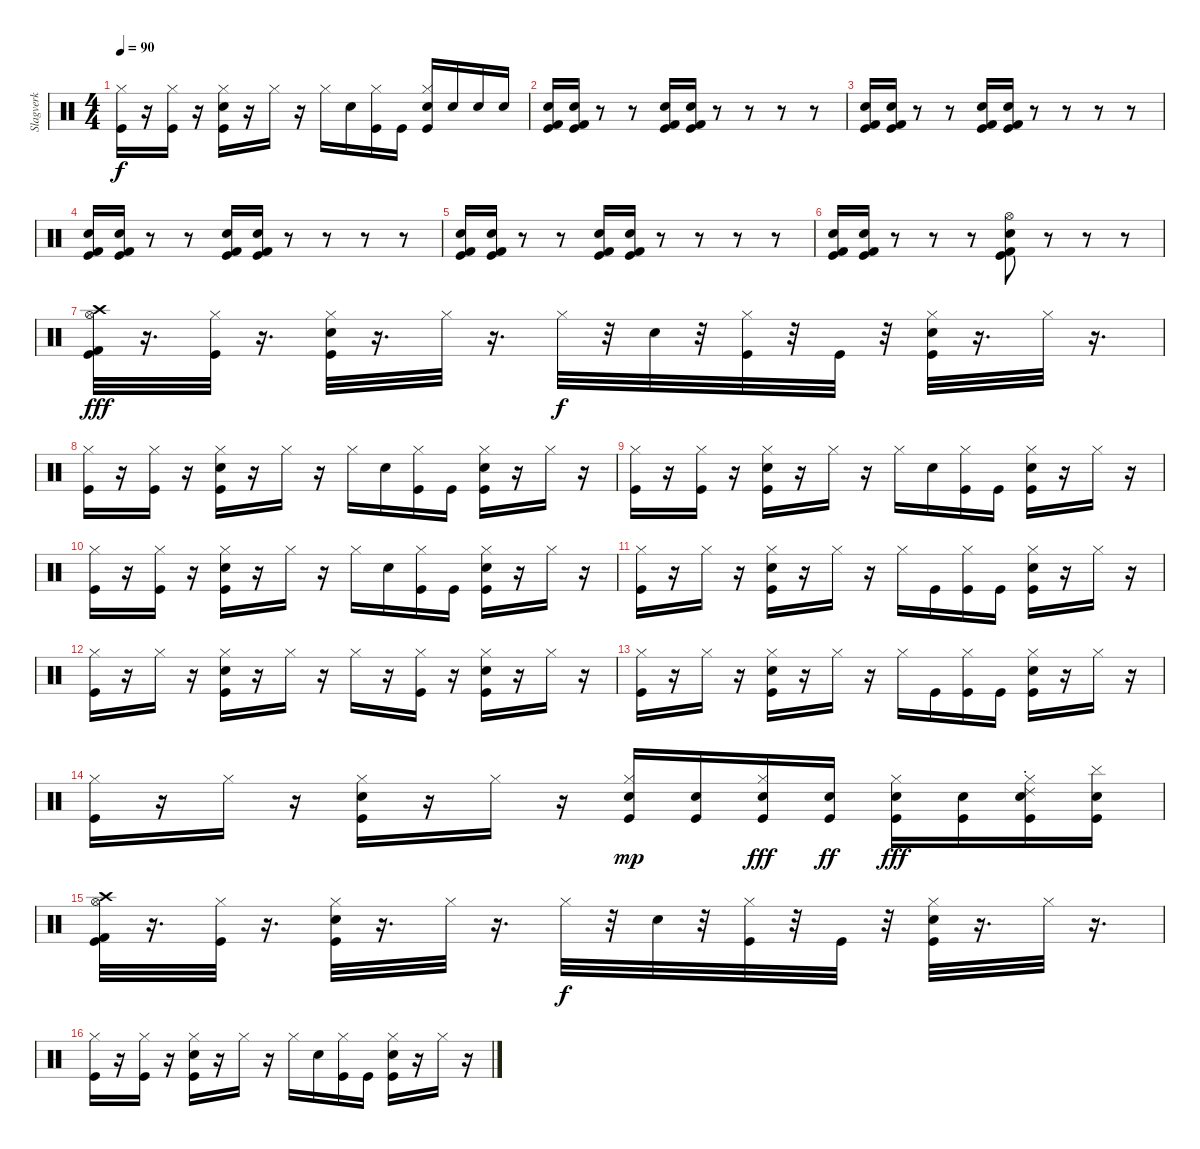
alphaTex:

\track ("Slagverk" "Slagverk") {instrument percussion}
\staff {score}
\articulation defaults
\ts (4 4)
\tempo 90
\clef neutral
\ks c
("Kick (hit)" "Hi-Hat (closed)").16{dy f} r.16 ("Kick (hit)" "Hi-Hat (closed)").16 r.16 ("Kick (hit)" "Hi-Hat (closed)" "Snare (hit) 2").16 r.16 "Hi-Hat (closed)".16 r.16 "Hi-Hat (closed)".16 "Snare (hit) 2".16 ("Kick (hit)" "Hi-Hat (closed)").16 "Kick (hit)".16 ("Kick (hit)" "Hi-Hat (closed)" "Snare (hit) 2").16 "Snare (hit) 2".16 "Snare (hit) 2".16 "Snare (hit) 2".16 |
("Snare (hit) 2" "Kick (hit)" "Kick (hit) 2").16 ("Snare (hit) 2" "Kick (hit)" "Kick (hit) 2").16 r.8 r.8 ("Snare (hit) 2" "Kick (hit)" "Kick (hit) 2").16 ("Snare (hit) 2" "Kick (hit)" "Kick (hit) 2").16 r.8 r.8 r.8 r.8 |
("Snare (hit) 2" "Kick (hit)" "Kick (hit) 2").16 ("Snare (hit) 2" "Kick (hit)" "Kick (hit) 2").16 r.8 r.8 ("Snare (hit) 2" "Kick (hit)" "Kick (hit) 2").16 ("Snare (hit) 2" "Kick (hit)" "Kick (hit) 2").16 r.8 r.8 r.8 r.8 |
("Snare (hit) 2" "Kick (hit)" "Kick (hit) 2").16 ("Snare (hit) 2" "Kick (hit)" "Kick (hit) 2").16 r.8 r.8 ("Snare (hit) 2" "Kick (hit)" "Kick (hit) 2").16 ("Snare (hit) 2" "Kick (hit)" "Kick (hit) 2").16 r.8 r.8 r.8 r.8 |
("Snare (hit) 2" "Kick (hit)" "Kick (hit) 2").16 ("Snare (hit) 2" "Kick (hit)" "Kick (hit) 2").16 r.8 r.8 ("Snare (hit) 2" "Kick (hit)" "Kick (hit) 2").16 ("Snare (hit) 2" "Kick (hit)" "Kick (hit) 2").16 r.8 r.8 r.8 r.8 |
("Snare (hit) 2" "Kick (hit)" "Kick (hit) 2").16 ("Snare (hit) 2" "Kick (hit)" "Kick (hit) 2").16 r.8 r.8 r.8 ("Hi-Hat (open)" "Kick (hit)" "Snare (hit) 2" "Kick (hit) 2").8 r.8 r.8 r.8 |
("Kick (hit)" "Hi-Hat (open)" "Crash high (hit)" "Kick (hit) 2").32{dy fff} r.16{d} ("Kick (hit)" "Hi-Hat (closed)").32 r.16{d} ("Snare (hit) 2" "Kick (hit)" "Hi-Hat (closed)").32 r.16{d} "Hi-Hat (closed)".32 r.16{d} "Hi-Hat (closed)".32{dy f} r.32 "Snare (hit) 2".32 r.32 ("Hi-Hat (closed)" "Kick (hit)").32 r.32 "Kick (hit)".32 r.32 ("Hi-Hat (closed)" "Snare (hit) 2" "Kick (hit)").32 r.16{d} "Hi-Hat (closed)".32 r.16{d} |
("Kick (hit)" "Hi-Hat (closed)").16 r.16 ("Kick (hit)" "Hi-Hat (closed)").16 r.16 ("Kick (hit)" "Hi-Hat (closed)" "Snare (hit) 2").16 r.16 "Hi-Hat (closed)".16 r.16 "Hi-Hat (closed)".16 "Snare (hit) 2".16 ("Kick (hit)" "Hi-Hat (closed)").16 "Kick (hit)".16 ("Kick (hit)" "Hi-Hat (closed)" "Snare (hit) 2").16 r.16 "Hi-Hat (closed)".16 r.16 |
("Kick (hit)" "Hi-Hat (closed)").16 r.16 ("Kick (hit)" "Hi-Hat (closed)").16 r.16 ("Kick (hit)" "Hi-Hat (closed)" "Snare (hit) 2").16 r.16 "Hi-Hat (closed)".16 r.16 "Hi-Hat (closed)".16 "Snare (hit) 2".16 ("Kick (hit)" "Hi-Hat (closed)").16 "Kick (hit)".16 ("Kick (hit)" "Hi-Hat (closed)" "Snare (hit) 2").16 r.16 "Hi-Hat (closed)".16 r.16 |
("Kick (hit)" "Hi-Hat (closed)").16 r.16 ("Kick (hit)" "Hi-Hat (closed)").16 r.16 ("Kick (hit)" "Hi-Hat (closed)" "Snare (hit) 2").16 r.16 "Hi-Hat (closed)".16 r.16 "Hi-Hat (closed)".16 "Snare (hit) 2".16 ("Kick (hit)" "Hi-Hat (closed)").16 "Kick (hit)".16 ("Kick (hit)" "Hi-Hat (closed)" "Snare (hit) 2").16 r.16 "Hi-Hat (closed)".16 r.16 |
("Kick (hit)" "Hi-Hat (closed)").16 r.16 "Hi-Hat (closed)".16 r.16 ("Kick (hit)" "Hi-Hat (closed)" "Snare (hit) 2").16 r.16 "Hi-Hat (closed)".16 r.16 "Hi-Hat (closed)".16 "Kick (hit)".16 ("Kick (hit)" "Hi-Hat (closed)").16 "Kick (hit)".16 ("Kick (hit)" "Hi-Hat (closed)" "Snare (hit) 2").16 r.16 "Hi-Hat (closed)".16 r.16 |
("Kick (hit)" "Hi-Hat (closed)").16 r.16 "Hi-Hat (closed)".16 r.16 ("Kick (hit)" "Hi-Hat (closed)" "Snare (hit) 2").16 r.16 "Hi-Hat (closed)".16 r.16 "Hi-Hat (closed)".16 r.16 ("Kick (hit)" "Hi-Hat (closed)").16 r.16 ("Kick (hit)" "Hi-Hat (closed)" "Snare (hit) 2").16 r.16 "Hi-Hat (closed)".16 r.16 |
("Kick (hit)" "Hi-Hat (closed)").16 r.16 "Hi-Hat (closed)".16 r.16 ("Kick (hit)" "Hi-Hat (closed)" "Snare (hit) 2").16 r.16 "Hi-Hat (closed)".16 r.16 "Hi-Hat (closed)".16 "Kick (hit)".16 ("Kick (hit)" "Hi-Hat (closed)").16 "Kick (hit)".16 ("Kick (hit)" "Hi-Hat (closed)" "Snare (hit) 2").16 r.16 "Hi-Hat (closed)".16 r.16 |
("Kick (hit)" "Hi-Hat (closed)").16 r.16 "Hi-Hat (closed)".16 r.16 ("Kick (hit)" "Hi-Hat (closed)" "Snare (hit) 2").16 r.16 "Hi-Hat (closed)".16 r.16 ("Kick (hit)" "Hi-Hat (closed)" "Snare (hit) 2").16{dy mp} ("Kick (hit)" "Snare (hit) 2").16 ("Kick (hit)" "Hi-Hat (closed)" "Snare (hit) 2").16{dy fff} ("Kick (hit)" "Snare (hit) 2").16{dy ff} ("Kick (hit)" "Hi-Hat (closed)" "Snare (hit) 2").16{dy fff} ("Kick (hit)" "Snare (hit) 2").16 ("Kick (hit)" "Hi-Hat (closed)" "Snare (hit) 2" "Ride (choke) 2").16 ("Kick (hit)" "Snare (hit) 2" "Cymbal (hit)").16 |
("Kick (hit)" "Hi-Hat (open)" "Crash high (hit)" "Kick (hit) 2").32 r.16{d} ("Kick (hit)" "Hi-Hat (closed)").32 r.16{d} ("Snare (hit) 2" "Kick (hit)" "Hi-Hat (closed)").32 r.16{d} "Hi-Hat (closed)".32 r.16{d} "Hi-Hat (closed)".32{dy f} r.32 "Snare (hit) 2".32 r.32 ("Hi-Hat (closed)" "Kick (hit)").32 r.32 "Kick (hit)".32 r.32 ("Hi-Hat (closed)" "Snare (hit) 2" "Kick (hit)").32 r.16{d} "Hi-Hat (closed)".32 r.16{d} |
("Kick (hit)" "Hi-Hat (closed)").16 r.16 ("Kick (hit)" "Hi-Hat (closed)").16 r.16 ("Kick (hit)" "Hi-Hat (closed)" "Snare (hit) 2").16 r.16 "Hi-Hat (closed)".16 r.16 "Hi-Hat (closed)".16 "Snare (hit) 2".16 ("Kick (hit)" "Hi-Hat (closed)").16 "Kick (hit)".16 ("Kick (hit)" "Hi-Hat (closed)" "Snare (hit) 2").16 r.16 "Hi-Hat (closed)".16 r.16
